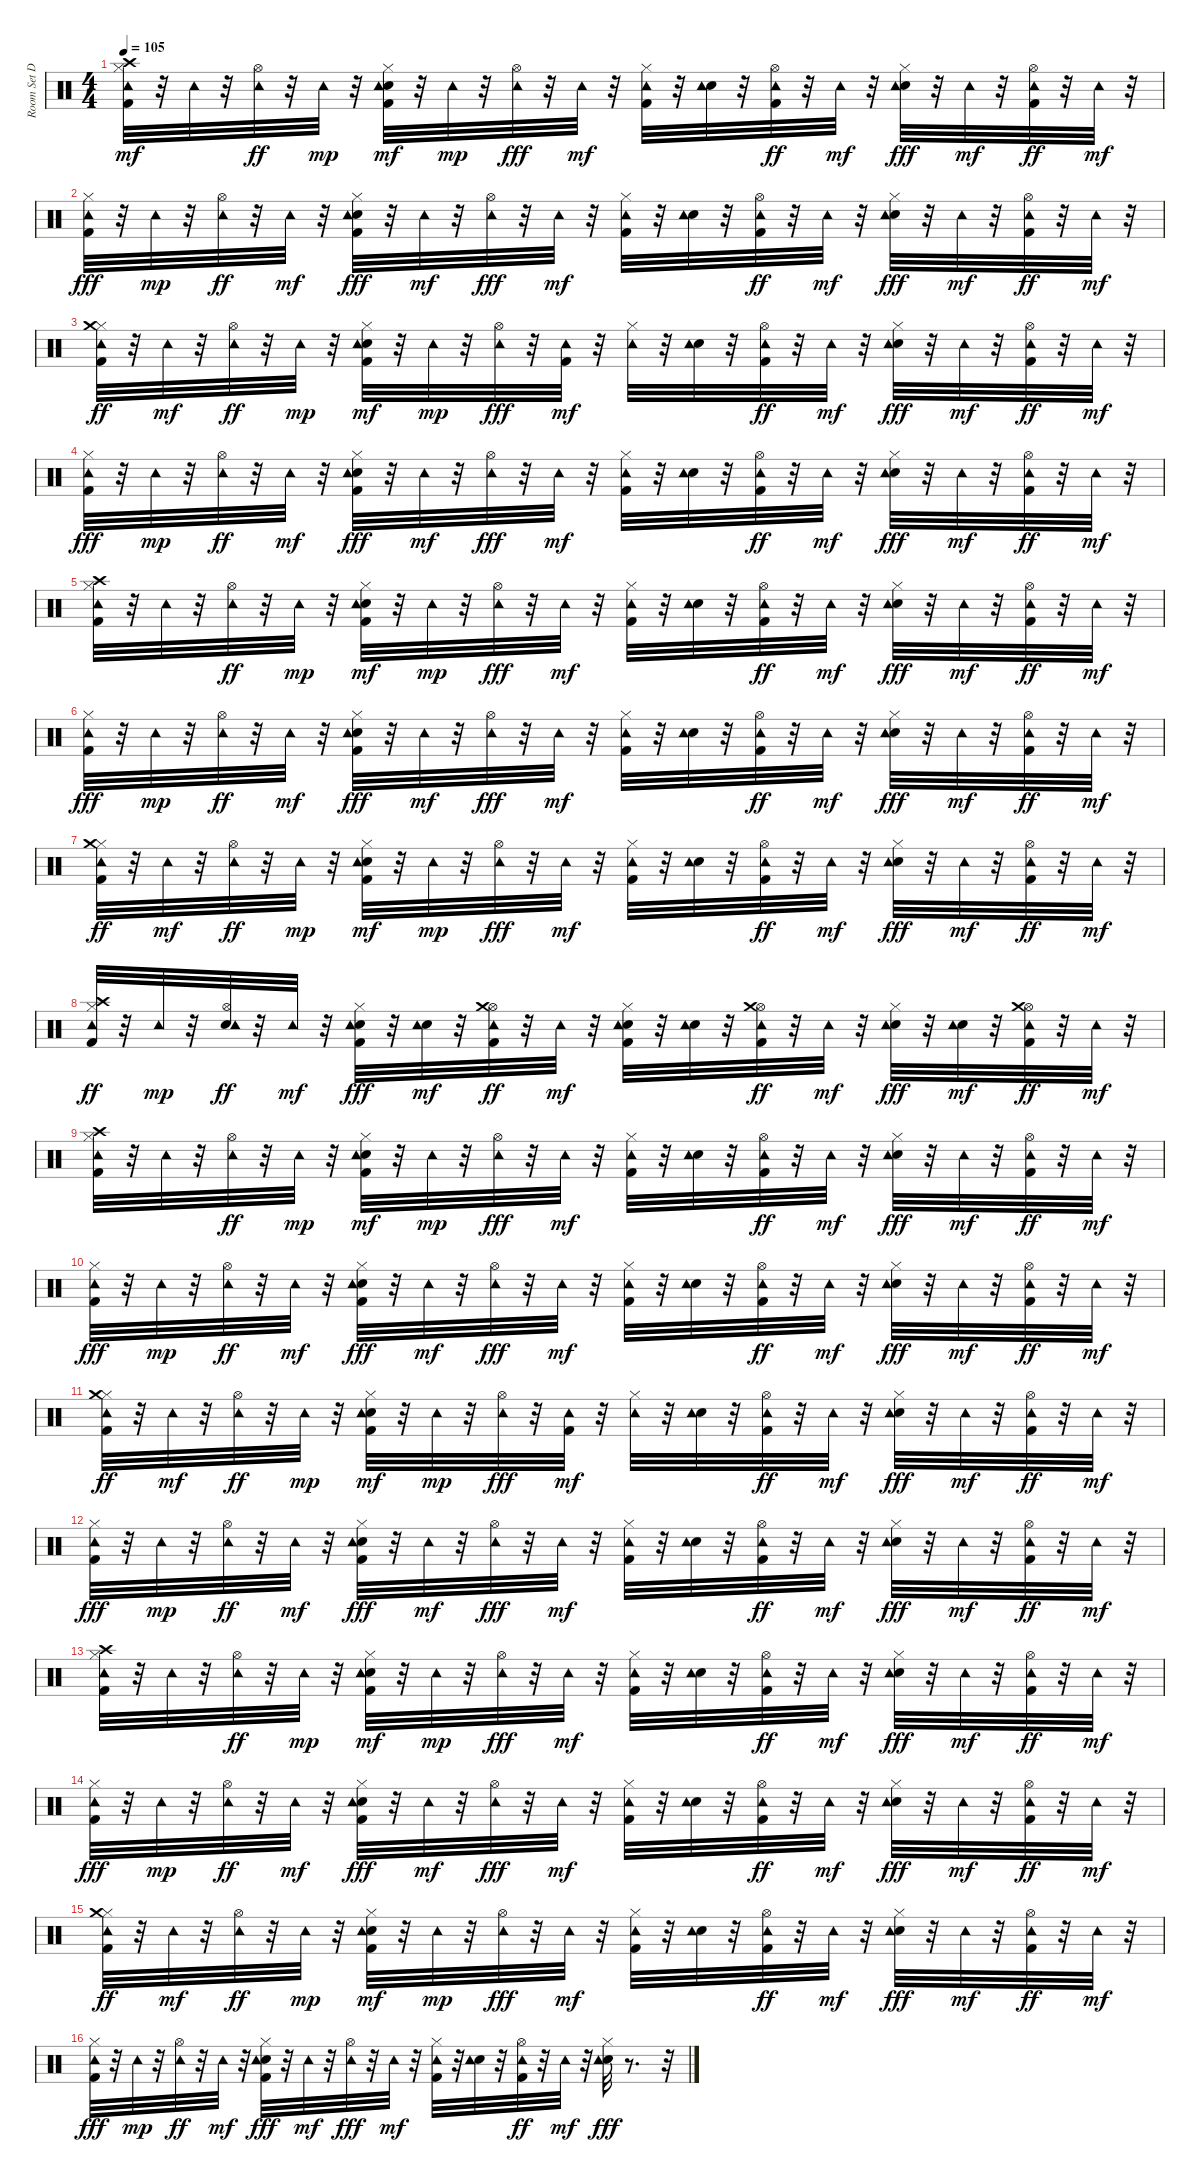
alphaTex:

\track ("Room Set Drums" "Room Set D") {instrument percussion}
\staff {score}
\articulation defaults
\ts (4 4)
\tempo 105
\clef neutral
\ks c
("Kick (hit) 2" "Hi-Hat (closed)" "Crash high (hit)" "Tambourine (hit)").32{dy mf} r.32 "Tambourine (hit)".32 r.32 ("Hi-Hat (open)" "Tambourine (hit)").32{dy ff} r.32 "Tambourine (hit)".32{dy mp} r.32 ("Kick (hit) 2" "Electric Snare (hit)" "Hi-Hat (closed)" "Tambourine (hit)").32{dy mf} r.32 "Tambourine (hit)".32{dy mp} r.32 ("Hi-Hat (open)" "Tambourine (hit)").32{dy fff} r.32 "Tambourine (hit)".32{dy mf} r.32 ("Kick (hit) 2" "Hi-Hat (closed)" "Tambourine (hit)").32 r.32 ("Electric Snare (hit)" "Tambourine (hit)").32 r.32 ("Kick (hit) 2" "Hi-Hat (open)" "Tambourine (hit)").32{dy ff} r.32 "Tambourine (hit)".32{dy mf} r.32 ("Electric Snare (hit)" "Hi-Hat (closed)" "Tambourine (hit)").32{dy fff} r.32 "Tambourine (hit)".32{dy mf} r.32 ("Kick (hit) 2" "Hi-Hat (open)" "Tambourine (hit)").32{dy ff} r.32 "Tambourine (hit)".32{dy mf} r.32 |
("Kick (hit) 2" "Hi-Hat (closed)" "Tambourine (hit)").32{dy fff} r.32 "Tambourine (hit)".32{dy mp} r.32 ("Hi-Hat (open)" "Tambourine (hit)").32{dy ff} r.32 "Tambourine (hit)".32{dy mf} r.32 ("Kick (hit) 2" "Electric Snare (hit)" "Hi-Hat (closed)" "Tambourine (hit)").32{dy fff} r.32 "Tambourine (hit)".32{dy mf} r.32 ("Hi-Hat (open)" "Tambourine (hit)").32{dy fff} r.32 "Tambourine (hit)".32{dy mf} r.32 ("Kick (hit) 2" "Hi-Hat (closed)" "Tambourine (hit)").32 r.32 ("Electric Snare (hit)" "Tambourine (hit)").32 r.32 ("Kick (hit) 2" "Hi-Hat (open)" "Tambourine (hit)").32{dy ff} r.32 "Tambourine (hit)".32{dy mf} r.32 ("Electric Snare (hit)" "Hi-Hat (closed)" "Tambourine (hit)").32{dy fff} r.32 "Tambourine (hit)".32{dy mf} r.32 ("Kick (hit) 2" "Hi-Hat (open)" "Tambourine (hit)").32{dy ff} r.32 "Tambourine (hit)".32{dy mf} r.32 |
("Kick (hit) 2" "Hi-Hat (closed)" "Tambourine (hit)" "Crash medium (hit)").32{dy ff} r.32 "Tambourine (hit)".32{dy mf} r.32 ("Hi-Hat (open)" "Tambourine (hit)").32{dy ff} r.32 "Tambourine (hit)".32{dy mp} r.32 ("Kick (hit) 2" "Electric Snare (hit)" "Hi-Hat (closed)" "Tambourine (hit)").32{dy mf} r.32 "Tambourine (hit)".32{dy mp} r.32 ("Hi-Hat (open)" "Tambourine (hit)").32{dy fff} r.32 ("Kick (hit) 2" "Tambourine (hit)").32{dy mf} r.32 ("Hi-Hat (closed)" "Tambourine (hit)").32 r.32 ("Electric Snare (hit)" "Tambourine (hit)").32 r.32 ("Kick (hit) 2" "Hi-Hat (open)" "Tambourine (hit)").32{dy ff} r.32 "Tambourine (hit)".32{dy mf} r.32 ("Electric Snare (hit)" "Hi-Hat (closed)" "Tambourine (hit)").32{dy fff} r.32 "Tambourine (hit)".32{dy mf} r.32 ("Kick (hit) 2" "Hi-Hat (open)" "Tambourine (hit)").32{dy ff} r.32 "Tambourine (hit)".32{dy mf} r.32 |
("Kick (hit) 2" "Hi-Hat (closed)" "Tambourine (hit)").32{dy fff} r.32 "Tambourine (hit)".32{dy mp} r.32 ("Hi-Hat (open)" "Tambourine (hit)").32{dy ff} r.32 "Tambourine (hit)".32{dy mf} r.32 ("Kick (hit) 2" "Electric Snare (hit)" "Hi-Hat (closed)" "Tambourine (hit)").32{dy fff} r.32 "Tambourine (hit)".32{dy mf} r.32 ("Hi-Hat (open)" "Tambourine (hit)").32{dy fff} r.32 "Tambourine (hit)".32{dy mf} r.32 ("Kick (hit) 2" "Hi-Hat (closed)" "Tambourine (hit)").32 r.32 ("Electric Snare (hit)" "Tambourine (hit)").32 r.32 ("Kick (hit) 2" "Hi-Hat (open)" "Tambourine (hit)").32{dy ff} r.32 "Tambourine (hit)".32{dy mf} r.32 ("Electric Snare (hit)" "Hi-Hat (closed)" "Tambourine (hit)").32{dy fff} r.32 "Tambourine (hit)".32{dy mf} r.32 ("Kick (hit) 2" "Hi-Hat (open)" "Tambourine (hit)").32{dy ff} r.32 "Tambourine (hit)".32{dy mf} r.32 |
("Kick (hit) 2" "Hi-Hat (closed)" "Crash high (hit)" "Tambourine (hit)").32 r.32 "Tambourine (hit)".32 r.32 ("Hi-Hat (open)" "Tambourine (hit)").32{dy ff} r.32 "Tambourine (hit)".32{dy mp} r.32 ("Kick (hit) 2" "Electric Snare (hit)" "Hi-Hat (closed)" "Tambourine (hit)").32{dy mf} r.32 "Tambourine (hit)".32{dy mp} r.32 ("Hi-Hat (open)" "Tambourine (hit)").32{dy fff} r.32 "Tambourine (hit)".32{dy mf} r.32 ("Kick (hit) 2" "Hi-Hat (closed)" "Tambourine (hit)").32 r.32 ("Electric Snare (hit)" "Tambourine (hit)").32 r.32 ("Kick (hit) 2" "Hi-Hat (open)" "Tambourine (hit)").32{dy ff} r.32 "Tambourine (hit)".32{dy mf} r.32 ("Electric Snare (hit)" "Hi-Hat (closed)" "Tambourine (hit)").32{dy fff} r.32 "Tambourine (hit)".32{dy mf} r.32 ("Kick (hit) 2" "Hi-Hat (open)" "Tambourine (hit)").32{dy ff} r.32 "Tambourine (hit)".32{dy mf} r.32 |
("Kick (hit) 2" "Hi-Hat (closed)" "Tambourine (hit)").32{dy fff} r.32 "Tambourine (hit)".32{dy mp} r.32 ("Hi-Hat (open)" "Tambourine (hit)").32{dy ff} r.32 "Tambourine (hit)".32{dy mf} r.32 ("Kick (hit) 2" "Electric Snare (hit)" "Hi-Hat (closed)" "Tambourine (hit)").32{dy fff} r.32 "Tambourine (hit)".32{dy mf} r.32 ("Hi-Hat (open)" "Tambourine (hit)").32{dy fff} r.32 "Tambourine (hit)".32{dy mf} r.32 ("Kick (hit) 2" "Hi-Hat (closed)" "Tambourine (hit)").32 r.32 ("Electric Snare (hit)" "Tambourine (hit)").32 r.32 ("Kick (hit) 2" "Hi-Hat (open)" "Tambourine (hit)").32{dy ff} r.32 "Tambourine (hit)".32{dy mf} r.32 ("Electric Snare (hit)" "Hi-Hat (closed)" "Tambourine (hit)").32{dy fff} r.32 "Tambourine (hit)".32{dy mf} r.32 ("Kick (hit) 2" "Hi-Hat (open)" "Tambourine (hit)").32{dy ff} r.32 "Tambourine (hit)".32{dy mf} r.32 |
("Kick (hit) 2" "Hi-Hat (closed)" "Tambourine (hit)" "Crash medium (hit)").32{dy ff} r.32 "Tambourine (hit)".32{dy mf} r.32 ("Hi-Hat (open)" "Tambourine (hit)").32{dy ff} r.32 "Tambourine (hit)".32{dy mp} r.32 ("Kick (hit) 2" "Electric Snare (hit)" "Hi-Hat (closed)" "Tambourine (hit)").32{dy mf} r.32 "Tambourine (hit)".32{dy mp} r.32 ("Hi-Hat (open)" "Tambourine (hit)").32{dy fff} r.32 "Tambourine (hit)".32{dy mf} r.32 ("Kick (hit) 2" "Hi-Hat (closed)" "Tambourine (hit)").32 r.32 ("Electric Snare (hit)" "Tambourine (hit)").32 r.32 ("Kick (hit) 2" "Hi-Hat (open)" "Tambourine (hit)").32{dy ff} r.32 "Tambourine (hit)".32{dy mf} r.32 ("Electric Snare (hit)" "Hi-Hat (closed)" "Tambourine (hit)").32{dy fff} r.32 "Tambourine (hit)".32{dy mf} r.32 ("Kick (hit) 2" "Hi-Hat (open)" "Tambourine (hit)").32{dy ff} r.32 "Tambourine (hit)".32{dy mf} r.32 |
("Kick (hit) 2" "Hi-Hat (closed)" "Crash high (hit)" "Tambourine (hit)").32{dy ff} r.32 "Tambourine (hit)".32{dy mp} r.32 ("Electric Snare (hit)" "Hi-Hat (open)" "Tambourine (hit)").32{dy ff} r.32 "Tambourine (hit)".32{dy mf} r.32 ("Kick (hit) 2" "Electric Snare (hit)" "Hi-Hat (closed)" "Tambourine (hit)").32{dy fff} r.32 ("Electric Snare (hit)" "Tambourine (hit)").32{dy mf} r.32 ("Kick (hit) 2" "Hi-Hat (open)" "Tambourine (hit)" "Crash medium (hit)").32{dy ff} r.32 "Tambourine (hit)".32{dy mf} r.32 ("Kick (hit) 2" "Electric Snare (hit)" "Hi-Hat (closed)" "Tambourine (hit)").32 r.32 ("Electric Snare (hit)" "Tambourine (hit)").32 r.32 ("Kick (hit) 2" "Hi-Hat (open)" "Tambourine (hit)" "Crash medium (hit)").32{dy ff} r.32 "Tambourine (hit)".32{dy mf} r.32 ("Electric Snare (hit)" "Hi-Hat (closed)" "Tambourine (hit)").32{dy fff} r.32 ("Electric Snare (hit)" "Tambourine (hit)").32{dy mf} r.32 ("Kick (hit) 2" "Hi-Hat (open)" "Tambourine (hit)" "Crash medium (hit)").32{dy ff} r.32 "Tambourine (hit)".32{dy mf} r.32 |
("Kick (hit) 2" "Hi-Hat (closed)" "Crash high (hit)" "Tambourine (hit)").32 r.32 "Tambourine (hit)".32 r.32 ("Hi-Hat (open)" "Tambourine (hit)").32{dy ff} r.32 "Tambourine (hit)".32{dy mp} r.32 ("Kick (hit) 2" "Electric Snare (hit)" "Hi-Hat (closed)" "Tambourine (hit)").32{dy mf} r.32 "Tambourine (hit)".32{dy mp} r.32 ("Hi-Hat (open)" "Tambourine (hit)").32{dy fff} r.32 "Tambourine (hit)".32{dy mf} r.32 ("Kick (hit) 2" "Hi-Hat (closed)" "Tambourine (hit)").32 r.32 ("Electric Snare (hit)" "Tambourine (hit)").32 r.32 ("Kick (hit) 2" "Hi-Hat (open)" "Tambourine (hit)").32{dy ff} r.32 "Tambourine (hit)".32{dy mf} r.32 ("Electric Snare (hit)" "Hi-Hat (closed)" "Tambourine (hit)").32{dy fff} r.32 "Tambourine (hit)".32{dy mf} r.32 ("Kick (hit) 2" "Hi-Hat (open)" "Tambourine (hit)").32{dy ff} r.32 "Tambourine (hit)".32{dy mf} r.32 |
("Kick (hit) 2" "Hi-Hat (closed)" "Tambourine (hit)").32{dy fff} r.32 "Tambourine (hit)".32{dy mp} r.32 ("Hi-Hat (open)" "Tambourine (hit)").32{dy ff} r.32 "Tambourine (hit)".32{dy mf} r.32 ("Kick (hit) 2" "Electric Snare (hit)" "Hi-Hat (closed)" "Tambourine (hit)").32{dy fff} r.32 "Tambourine (hit)".32{dy mf} r.32 ("Hi-Hat (open)" "Tambourine (hit)").32{dy fff} r.32 "Tambourine (hit)".32{dy mf} r.32 ("Kick (hit) 2" "Hi-Hat (closed)" "Tambourine (hit)").32 r.32 ("Electric Snare (hit)" "Tambourine (hit)").32 r.32 ("Kick (hit) 2" "Hi-Hat (open)" "Tambourine (hit)").32{dy ff} r.32 "Tambourine (hit)".32{dy mf} r.32 ("Electric Snare (hit)" "Hi-Hat (closed)" "Tambourine (hit)").32{dy fff} r.32 "Tambourine (hit)".32{dy mf} r.32 ("Kick (hit) 2" "Hi-Hat (open)" "Tambourine (hit)").32{dy ff} r.32 "Tambourine (hit)".32{dy mf} r.32 |
("Kick (hit) 2" "Hi-Hat (closed)" "Tambourine (hit)" "Crash medium (hit)").32{dy ff} r.32 "Tambourine (hit)".32{dy mf} r.32 ("Hi-Hat (open)" "Tambourine (hit)").32{dy ff} r.32 "Tambourine (hit)".32{dy mp} r.32 ("Kick (hit) 2" "Electric Snare (hit)" "Hi-Hat (closed)" "Tambourine (hit)").32{dy mf} r.32 "Tambourine (hit)".32{dy mp} r.32 ("Hi-Hat (open)" "Tambourine (hit)").32{dy fff} r.32 ("Kick (hit) 2" "Tambourine (hit)").32{dy mf} r.32 ("Hi-Hat (closed)" "Tambourine (hit)").32 r.32 ("Electric Snare (hit)" "Tambourine (hit)").32 r.32 ("Kick (hit) 2" "Hi-Hat (open)" "Tambourine (hit)").32{dy ff} r.32 "Tambourine (hit)".32{dy mf} r.32 ("Electric Snare (hit)" "Hi-Hat (closed)" "Tambourine (hit)").32{dy fff} r.32 "Tambourine (hit)".32{dy mf} r.32 ("Kick (hit) 2" "Hi-Hat (open)" "Tambourine (hit)").32{dy ff} r.32 "Tambourine (hit)".32{dy mf} r.32 |
("Kick (hit) 2" "Hi-Hat (closed)" "Tambourine (hit)").32{dy fff} r.32 "Tambourine (hit)".32{dy mp} r.32 ("Hi-Hat (open)" "Tambourine (hit)").32{dy ff} r.32 "Tambourine (hit)".32{dy mf} r.32 ("Kick (hit) 2" "Electric Snare (hit)" "Hi-Hat (closed)" "Tambourine (hit)").32{dy fff} r.32 "Tambourine (hit)".32{dy mf} r.32 ("Hi-Hat (open)" "Tambourine (hit)").32{dy fff} r.32 "Tambourine (hit)".32{dy mf} r.32 ("Kick (hit) 2" "Hi-Hat (closed)" "Tambourine (hit)").32 r.32 ("Electric Snare (hit)" "Tambourine (hit)").32 r.32 ("Kick (hit) 2" "Hi-Hat (open)" "Tambourine (hit)").32{dy ff} r.32 "Tambourine (hit)".32{dy mf} r.32 ("Electric Snare (hit)" "Hi-Hat (closed)" "Tambourine (hit)").32{dy fff} r.32 "Tambourine (hit)".32{dy mf} r.32 ("Kick (hit) 2" "Hi-Hat (open)" "Tambourine (hit)").32{dy ff} r.32 "Tambourine (hit)".32{dy mf} r.32 |
("Kick (hit) 2" "Hi-Hat (closed)" "Crash high (hit)" "Tambourine (hit)").32 r.32 "Tambourine (hit)".32 r.32 ("Hi-Hat (open)" "Tambourine (hit)").32{dy ff} r.32 "Tambourine (hit)".32{dy mp} r.32 ("Kick (hit) 2" "Electric Snare (hit)" "Hi-Hat (closed)" "Tambourine (hit)").32{dy mf} r.32 "Tambourine (hit)".32{dy mp} r.32 ("Hi-Hat (open)" "Tambourine (hit)").32{dy fff} r.32 "Tambourine (hit)".32{dy mf} r.32 ("Kick (hit) 2" "Hi-Hat (closed)" "Tambourine (hit)").32 r.32 ("Electric Snare (hit)" "Tambourine (hit)").32 r.32 ("Kick (hit) 2" "Hi-Hat (open)" "Tambourine (hit)").32{dy ff} r.32 "Tambourine (hit)".32{dy mf} r.32 ("Electric Snare (hit)" "Hi-Hat (closed)" "Tambourine (hit)").32{dy fff} r.32 "Tambourine (hit)".32{dy mf} r.32 ("Kick (hit) 2" "Hi-Hat (open)" "Tambourine (hit)").32{dy ff} r.32 "Tambourine (hit)".32{dy mf} r.32 |
("Kick (hit) 2" "Hi-Hat (closed)" "Tambourine (hit)").32{dy fff} r.32 "Tambourine (hit)".32{dy mp} r.32 ("Hi-Hat (open)" "Tambourine (hit)").32{dy ff} r.32 "Tambourine (hit)".32{dy mf} r.32 ("Kick (hit) 2" "Electric Snare (hit)" "Hi-Hat (closed)" "Tambourine (hit)").32{dy fff} r.32 "Tambourine (hit)".32{dy mf} r.32 ("Hi-Hat (open)" "Tambourine (hit)").32{dy fff} r.32 "Tambourine (hit)".32{dy mf} r.32 ("Kick (hit) 2" "Hi-Hat (closed)" "Tambourine (hit)").32 r.32 ("Electric Snare (hit)" "Tambourine (hit)").32 r.32 ("Kick (hit) 2" "Hi-Hat (open)" "Tambourine (hit)").32{dy ff} r.32 "Tambourine (hit)".32{dy mf} r.32 ("Electric Snare (hit)" "Hi-Hat (closed)" "Tambourine (hit)").32{dy fff} r.32 "Tambourine (hit)".32{dy mf} r.32 ("Kick (hit) 2" "Hi-Hat (open)" "Tambourine (hit)").32{dy ff} r.32 "Tambourine (hit)".32{dy mf} r.32 |
("Kick (hit) 2" "Hi-Hat (closed)" "Tambourine (hit)" "Crash medium (hit)").32{dy ff} r.32 "Tambourine (hit)".32{dy mf} r.32 ("Hi-Hat (open)" "Tambourine (hit)").32{dy ff} r.32 "Tambourine (hit)".32{dy mp} r.32 ("Kick (hit) 2" "Electric Snare (hit)" "Hi-Hat (closed)" "Tambourine (hit)").32{dy mf} r.32 "Tambourine (hit)".32{dy mp} r.32 ("Hi-Hat (open)" "Tambourine (hit)").32{dy fff} r.32 "Tambourine (hit)".32{dy mf} r.32 ("Kick (hit) 2" "Hi-Hat (closed)" "Tambourine (hit)").32 r.32 ("Electric Snare (hit)" "Tambourine (hit)").32 r.32 ("Kick (hit) 2" "Hi-Hat (open)" "Tambourine (hit)").32{dy ff} r.32 "Tambourine (hit)".32{dy mf} r.32 ("Electric Snare (hit)" "Hi-Hat (closed)" "Tambourine (hit)").32{dy fff} r.32 "Tambourine (hit)".32{dy mf} r.32 ("Kick (hit) 2" "Hi-Hat (open)" "Tambourine (hit)").32{dy ff} r.32 "Tambourine (hit)".32{dy mf} r.32 |
("Kick (hit) 2" "Hi-Hat (closed)" "Tambourine (hit)").32{dy fff} r.32 "Tambourine (hit)".32{dy mp} r.32 ("Hi-Hat (open)" "Tambourine (hit)").32{dy ff} r.32 "Tambourine (hit)".32{dy mf} r.32 ("Kick (hit) 2" "Electric Snare (hit)" "Hi-Hat (closed)" "Tambourine (hit)").32{dy fff} r.32 "Tambourine (hit)".32{dy mf} r.32 ("Hi-Hat (open)" "Tambourine (hit)").32{dy fff} r.32 "Tambourine (hit)".32{dy mf} r.32 ("Kick (hit) 2" "Hi-Hat (closed)" "Tambourine (hit)").32 r.32 ("Electric Snare (hit)" "Tambourine (hit)").32 r.32 ("Kick (hit) 2" "Hi-Hat (open)" "Tambourine (hit)").32{dy ff} r.32 "Tambourine (hit)".32{dy mf} r.32 ("Electric Snare (hit)" "Hi-Hat (closed)" "Tambourine (hit)").32{dy fff} r.8{d} r.32
